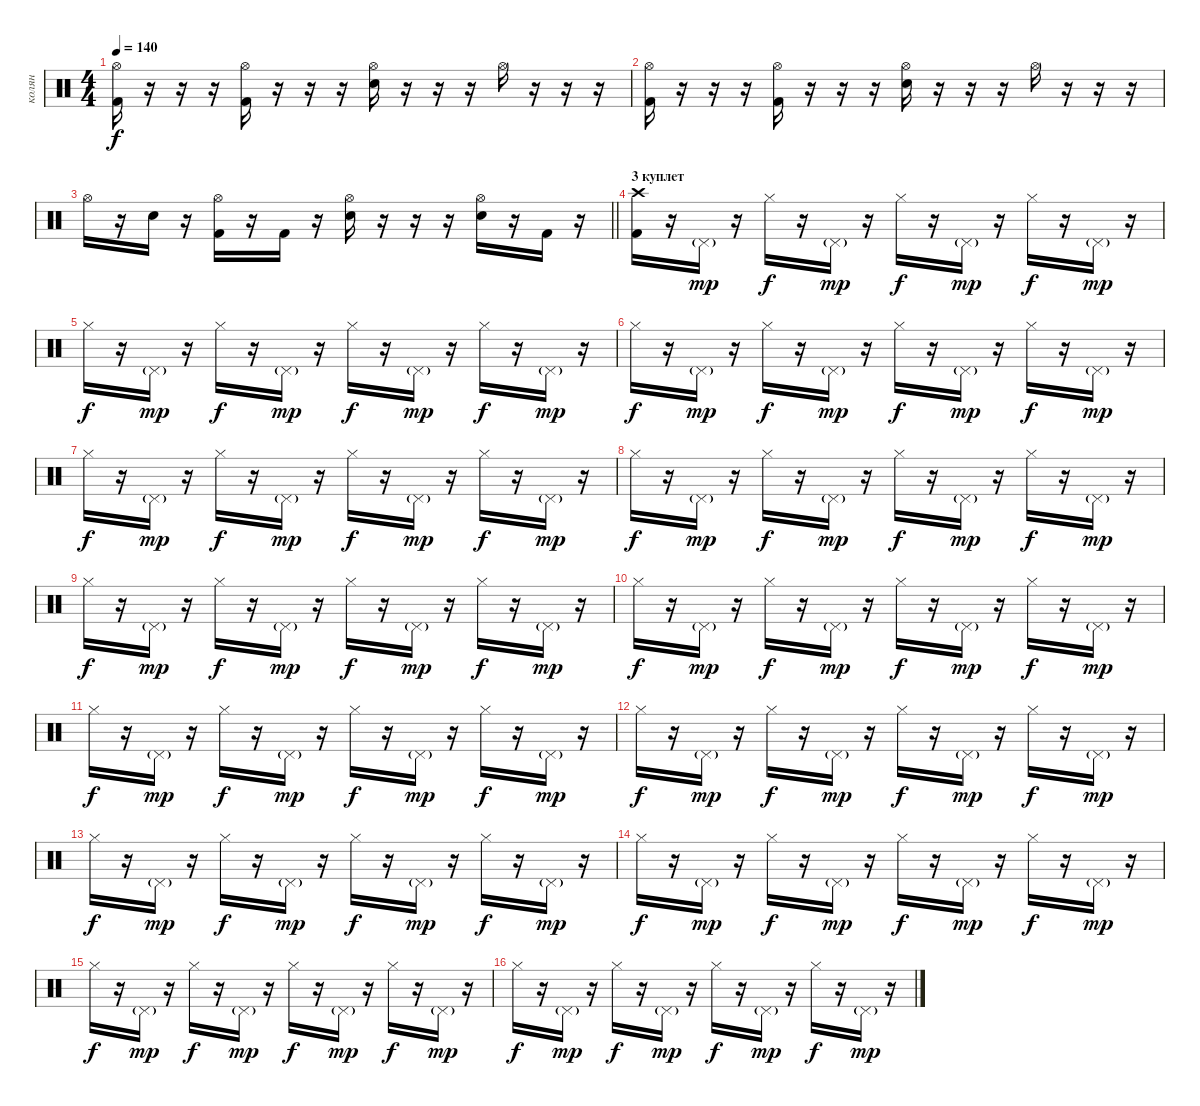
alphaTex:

\track ("колян" "колян") {instrument percussion}
\staff {score}
\articulation defaults
\ts (4 4)
\tempo 140
\clef neutral
\ks c
("Kick (hit) 2" "Hi-Hat (open)").16{dy f} r.16 r.16 r.16 ("Kick (hit) 2" "Hi-Hat (open)").16 r.16 r.16 r.16 ("Snare (hit) 2" "Hi-Hat (open)").16 r.16 r.16 r.16 "Hi-Hat (open)".16 r.16 r.16 r.16 |
("Kick (hit) 2" "Hi-Hat (open)").16 r.16 r.16 r.16 ("Kick (hit) 2" "Hi-Hat (open)").16 r.16 r.16 r.16 ("Snare (hit) 2" "Hi-Hat (open)").16 r.16 r.16 r.16 "Hi-Hat (open)".16 r.16 r.16 r.16 |
\barLineRight lightlight "Hi-Hat (open)".16
r.16 "Snare (hit) 2".16 r.16 ("Kick (hit) 2" "Hi-Hat (open)").16 r.16 "Kick (hit) 2".16 r.16 ("Snare (hit) 2" "Hi-Hat (open)").16 r.16 r.16 r.16 ("Snare (hit) 2" "Hi-Hat (open)").16 r.16 "Kick (hit) 2".16 r.16 |
\section ("" "3 куплет")
("Kick (hit) 2" "Crash high (hit)").16 r.16 "Pedal Hi-Hat (hit)"{g}.16{dy mp} r.16 "Hi-Hat (closed)".16{dy f} r.16 "Pedal Hi-Hat (hit)"{g}.16{dy mp} r.16 "Hi-Hat (closed)".16{dy f} r.16 "Pedal Hi-Hat (hit)"{g}.16{dy mp} r.16 "Hi-Hat (closed)".16{dy f} r.16 "Pedal Hi-Hat (hit)"{g}.16{dy mp} r.16 |
"Hi-Hat (closed)".16{dy f} r.16 "Pedal Hi-Hat (hit)"{g}.16{dy mp} r.16 "Hi-Hat (closed)".16{dy f} r.16 "Pedal Hi-Hat (hit)"{g}.16{dy mp} r.16 "Hi-Hat (closed)".16{dy f} r.16 "Pedal Hi-Hat (hit)"{g}.16{dy mp} r.16 "Hi-Hat (closed)".16{dy f} r.16 "Pedal Hi-Hat (hit)"{g}.16{dy mp} r.16 |
"Hi-Hat (closed)".16{dy f} r.16 "Pedal Hi-Hat (hit)"{g}.16{dy mp} r.16 "Hi-Hat (closed)".16{dy f} r.16 "Pedal Hi-Hat (hit)"{g}.16{dy mp} r.16 "Hi-Hat (closed)".16{dy f} r.16 "Pedal Hi-Hat (hit)"{g}.16{dy mp} r.16 "Hi-Hat (closed)".16{dy f} r.16 "Pedal Hi-Hat (hit)"{g}.16{dy mp} r.16 |
"Hi-Hat (closed)".16{dy f} r.16 "Pedal Hi-Hat (hit)"{g}.16{dy mp} r.16 "Hi-Hat (closed)".16{dy f} r.16 "Pedal Hi-Hat (hit)"{g}.16{dy mp} r.16 "Hi-Hat (closed)".16{dy f} r.16 "Pedal Hi-Hat (hit)"{g}.16{dy mp} r.16 "Hi-Hat (closed)".16{dy f} r.16 "Pedal Hi-Hat (hit)"{g}.16{dy mp} r.16 |
"Hi-Hat (closed)".16{dy f} r.16 "Pedal Hi-Hat (hit)"{g}.16{dy mp} r.16 "Hi-Hat (closed)".16{dy f} r.16 "Pedal Hi-Hat (hit)"{g}.16{dy mp} r.16 "Hi-Hat (closed)".16{dy f} r.16 "Pedal Hi-Hat (hit)"{g}.16{dy mp} r.16 "Hi-Hat (closed)".16{dy f} r.16 "Pedal Hi-Hat (hit)"{g}.16{dy mp} r.16 |
"Hi-Hat (closed)".16{dy f} r.16 "Pedal Hi-Hat (hit)"{g}.16{dy mp} r.16 "Hi-Hat (closed)".16{dy f} r.16 "Pedal Hi-Hat (hit)"{g}.16{dy mp} r.16 "Hi-Hat (closed)".16{dy f} r.16 "Pedal Hi-Hat (hit)"{g}.16{dy mp} r.16 "Hi-Hat (closed)".16{dy f} r.16 "Pedal Hi-Hat (hit)"{g}.16{dy mp} r.16 |
"Hi-Hat (closed)".16{dy f} r.16 "Pedal Hi-Hat (hit)"{g}.16{dy mp} r.16 "Hi-Hat (closed)".16{dy f} r.16 "Pedal Hi-Hat (hit)"{g}.16{dy mp} r.16 "Hi-Hat (closed)".16{dy f} r.16 "Pedal Hi-Hat (hit)"{g}.16{dy mp} r.16 "Hi-Hat (closed)".16{dy f} r.16 "Pedal Hi-Hat (hit)"{g}.16{dy mp} r.16 |
"Hi-Hat (closed)".16{dy f} r.16 "Pedal Hi-Hat (hit)"{g}.16{dy mp} r.16 "Hi-Hat (closed)".16{dy f} r.16 "Pedal Hi-Hat (hit)"{g}.16{dy mp} r.16 "Hi-Hat (closed)".16{dy f} r.16 "Pedal Hi-Hat (hit)"{g}.16{dy mp} r.16 "Hi-Hat (closed)".16{dy f} r.16 "Pedal Hi-Hat (hit)"{g}.16{dy mp} r.16 |
"Hi-Hat (closed)".16{dy f} r.16 "Pedal Hi-Hat (hit)"{g}.16{dy mp} r.16 "Hi-Hat (closed)".16{dy f} r.16 "Pedal Hi-Hat (hit)"{g}.16{dy mp} r.16 "Hi-Hat (closed)".16{dy f} r.16 "Pedal Hi-Hat (hit)"{g}.16{dy mp} r.16 "Hi-Hat (closed)".16{dy f} r.16 "Pedal Hi-Hat (hit)"{g}.16{dy mp} r.16 |
"Hi-Hat (closed)".16{dy f} r.16 "Pedal Hi-Hat (hit)"{g}.16{dy mp} r.16 "Hi-Hat (closed)".16{dy f} r.16 "Pedal Hi-Hat (hit)"{g}.16{dy mp} r.16 "Hi-Hat (closed)".16{dy f} r.16 "Pedal Hi-Hat (hit)"{g}.16{dy mp} r.16 "Hi-Hat (closed)".16{dy f} r.16 "Pedal Hi-Hat (hit)"{g}.16{dy mp} r.16 |
"Hi-Hat (closed)".16{dy f} r.16 "Pedal Hi-Hat (hit)"{g}.16{dy mp} r.16 "Hi-Hat (closed)".16{dy f} r.16 "Pedal Hi-Hat (hit)"{g}.16{dy mp} r.16 "Hi-Hat (closed)".16{dy f} r.16 "Pedal Hi-Hat (hit)"{g}.16{dy mp} r.16 "Hi-Hat (closed)".16{dy f} r.16 "Pedal Hi-Hat (hit)"{g}.16{dy mp} r.16 |
"Hi-Hat (closed)".16{dy f} r.16 "Pedal Hi-Hat (hit)"{g}.16{dy mp} r.16 "Hi-Hat (closed)".16{dy f} r.16 "Pedal Hi-Hat (hit)"{g}.16{dy mp} r.16 "Hi-Hat (closed)".16{dy f} r.16 "Pedal Hi-Hat (hit)"{g}.16{dy mp} r.16 "Hi-Hat (closed)".16{dy f} r.16 "Pedal Hi-Hat (hit)"{g}.16{dy mp} r.16 |
"Hi-Hat (closed)".16{dy f} r.16 "Pedal Hi-Hat (hit)"{g}.16{dy mp} r.16 "Hi-Hat (closed)".16{dy f} r.16 "Pedal Hi-Hat (hit)"{g}.16{dy mp} r.16 "Hi-Hat (closed)".16{dy f} r.16 "Pedal Hi-Hat (hit)"{g}.16{dy mp} r.16 "Hi-Hat (closed)".16{dy f} r.16 "Pedal Hi-Hat (hit)"{g}.16{dy mp} r.16
